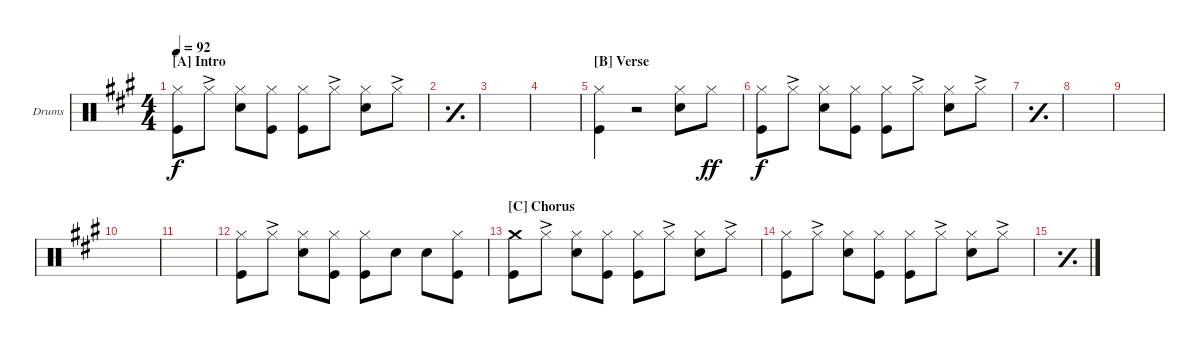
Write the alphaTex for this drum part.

\defaultSystemsLayout 4
\bracketExtendMode groupsimilarinstruments
\firstSystemTrackNameOrientation horizontal
\otherSystemsTrackNameOrientation horizontal
\track ("Matt Helders (Drums)" "Drums") {instrument percussion}
\staff {score}
\articulation defaults
\ts (4 4)
\section ("A" "Intro")
\tempo 92
\clef neutral
\ks a
("Kick (hit)" "Hi-Hat (closed)").8{dy f} "Hi-Hat (closed)"{ac}.8 ("Snare (hit) 2" "Hi-Hat (closed)").8 ("Hi-Hat (closed)" "Kick (hit)").8 ("Kick (hit)" "Hi-Hat (closed)").8 "Hi-Hat (closed)"{ac}.8 ("Snare (hit) 2" "Hi-Hat (closed)").8 "Hi-Hat (closed)"{ac}.8 |
\simile simple
|
|
|
\section ("B" "Verse")
\simile none
("Kick (hit)" "Hi-Hat (closed)").4 r.2 ("Snare (hit) 2" "Hi-Hat (closed)").8 "Hi-Hat (closed)".8{dy ff} |
("Kick (hit)" "Hi-Hat (closed)").8{dy f} "Hi-Hat (closed)"{ac}.8 ("Snare (hit) 2" "Hi-Hat (closed)").8 ("Hi-Hat (closed)" "Kick (hit)").8 ("Kick (hit)" "Hi-Hat (closed)").8 "Hi-Hat (closed)"{ac}.8 ("Snare (hit) 2" "Hi-Hat (closed)").8 "Hi-Hat (closed)"{ac}.8 |
\simile simple
|
|
|
|
|
\simile none
("Kick (hit)" "Hi-Hat (closed)").8 "Hi-Hat (closed)"{ac}.8 ("Snare (hit) 2" "Hi-Hat (closed)").8 ("Hi-Hat (closed)" "Kick (hit)").8 ("Kick (hit)" "Hi-Hat (closed)").8 "Snare (hit) 2".8 "Snare (hit) 2".8 ("Hi-Hat (closed)" "Kick (hit)").8 |
\section ("C" "Chorus")
("Kick (hit)" "Crash medium (hit)").8 "Hi-Hat (closed)"{ac}.8 ("Snare (hit) 2" "Hi-Hat (closed)").8 ("Hi-Hat (closed)" "Kick (hit)").8 ("Kick (hit)" "Hi-Hat (closed)").8 "Hi-Hat (closed)"{ac}.8 ("Snare (hit) 2" "Hi-Hat (closed)").8 "Hi-Hat (closed)"{ac}.8 |
("Kick (hit)" "Hi-Hat (closed)").8 "Hi-Hat (closed)"{ac}.8 ("Snare (hit) 2" "Hi-Hat (closed)").8 ("Hi-Hat (closed)" "Kick (hit)").8 ("Kick (hit)" "Hi-Hat (closed)").8 "Hi-Hat (closed)"{ac}.8 ("Snare (hit) 2" "Hi-Hat (closed)").8 "Hi-Hat (closed)"{ac}.8 |
\simile simple
